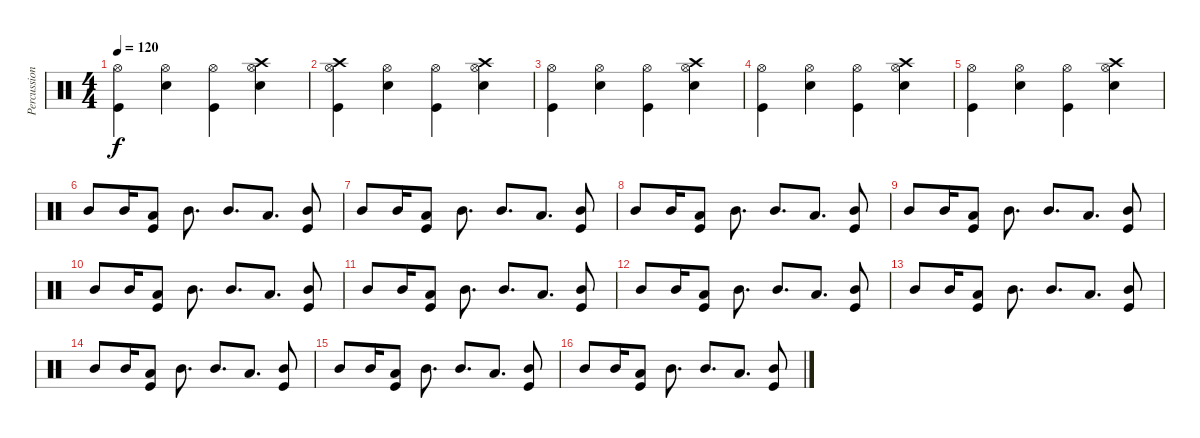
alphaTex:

\track ("Percussion" "Percussion") {instrument percussion}
\staff {score}
\articulation defaults
\ts (4 4)
\tempo 120
\clef neutral
\ks c
("Hi-Hat (open)" "Kick (hit)").4{dy f} ("Hi-Hat (open)" "Snare (hit) 2").4 ("Hi-Hat (open)" "Kick (hit)").4 ("Crash high (hit)" "Hi-Hat (open)" "Snare (hit) 2").4 |
("Crash high (hit)" "Hi-Hat (open)" "Kick (hit)").4 ("Hi-Hat (open)" "Snare (hit) 2").4 ("Hi-Hat (open)" "Kick (hit)").4 ("Crash high (hit)" "Hi-Hat (open)" "Snare (hit) 2").4 |
("Hi-Hat (open)" "Kick (hit)").4 ("Hi-Hat (open)" "Snare (hit) 2").4 ("Hi-Hat (open)" "Kick (hit)").4 ("Crash high (hit)" "Hi-Hat (open)" "Snare (hit) 2").4 |
("Hi-Hat (open)" "Kick (hit)").4 ("Hi-Hat (open)" "Snare (hit) 2").4 ("Hi-Hat (open)" "Kick (hit)").4 ("Crash high (hit)" "Hi-Hat (open)" "Snare (hit) 2").4 |
("Hi-Hat (open)" "Kick (hit)").4 ("Hi-Hat (open)" "Snare (hit) 2").4 ("Hi-Hat (open)" "Kick (hit)").4 ("Crash high (hit)" "Hi-Hat (open)" "Snare (hit) 2").4 |
"Mid Tom (hit)".8 "Mid Tom (hit)".16 ("Low Tom (hit)" "Kick (hit)").8 "Mid Tom (hit)".8{d} "Mid Tom (hit)".8{d} "Low Tom (hit)".8{d} ("Mid Tom (hit)" "Kick (hit)").8 |
"Mid Tom (hit)".8 "Mid Tom (hit)".16 ("Low Tom (hit)" "Kick (hit)").8 "Mid Tom (hit)".8{d} "Mid Tom (hit)".8{d} "Low Tom (hit)".8{d} ("Mid Tom (hit)" "Kick (hit)").8 |
"Mid Tom (hit)".8 "Mid Tom (hit)".16 ("Low Tom (hit)" "Kick (hit)").8 "Mid Tom (hit)".8{d} "Mid Tom (hit)".8{d} "Low Tom (hit)".8{d} ("Mid Tom (hit)" "Kick (hit)").8 |
"Mid Tom (hit)".8 "Mid Tom (hit)".16 ("Low Tom (hit)" "Kick (hit)").8 "Mid Tom (hit)".8{d} "Mid Tom (hit)".8{d} "Low Tom (hit)".8{d} ("Mid Tom (hit)" "Kick (hit)").8 |
"Mid Tom (hit)".8 "Mid Tom (hit)".16 ("Low Tom (hit)" "Kick (hit)").8 "Mid Tom (hit)".8{d} "Mid Tom (hit)".8{d} "Low Tom (hit)".8{d} ("Mid Tom (hit)" "Kick (hit)").8 |
"Mid Tom (hit)".8 "Mid Tom (hit)".16 ("Low Tom (hit)" "Kick (hit)").8 "Mid Tom (hit)".8{d} "Mid Tom (hit)".8{d} "Low Tom (hit)".8{d} ("Mid Tom (hit)" "Kick (hit)").8 |
"Mid Tom (hit)".8 "Mid Tom (hit)".16 ("Low Tom (hit)" "Kick (hit)").8 "Mid Tom (hit)".8{d} "Mid Tom (hit)".8{d} "Low Tom (hit)".8{d} ("Mid Tom (hit)" "Kick (hit)").8 |
"Mid Tom (hit)".8 "Mid Tom (hit)".16 ("Low Tom (hit)" "Kick (hit)").8 "Mid Tom (hit)".8{d} "Mid Tom (hit)".8{d} "Low Tom (hit)".8{d} ("Mid Tom (hit)" "Kick (hit)").8 |
"Mid Tom (hit)".8 "Mid Tom (hit)".16 ("Low Tom (hit)" "Kick (hit)").8 "Mid Tom (hit)".8{d} "Mid Tom (hit)".8{d} "Low Tom (hit)".8{d} ("Mid Tom (hit)" "Kick (hit)").8 |
"Mid Tom (hit)".8 "Mid Tom (hit)".16 ("Low Tom (hit)" "Kick (hit)").8 "Mid Tom (hit)".8{d} "Mid Tom (hit)".8{d} "Low Tom (hit)".8{d} ("Mid Tom (hit)" "Kick (hit)").8 |
"Mid Tom (hit)".8 "Mid Tom (hit)".16 ("Low Tom (hit)" "Kick (hit)").8 "Mid Tom (hit)".8{d} "Mid Tom (hit)".8{d} "Low Tom (hit)".8{d} ("Mid Tom (hit)" "Kick (hit)").8
